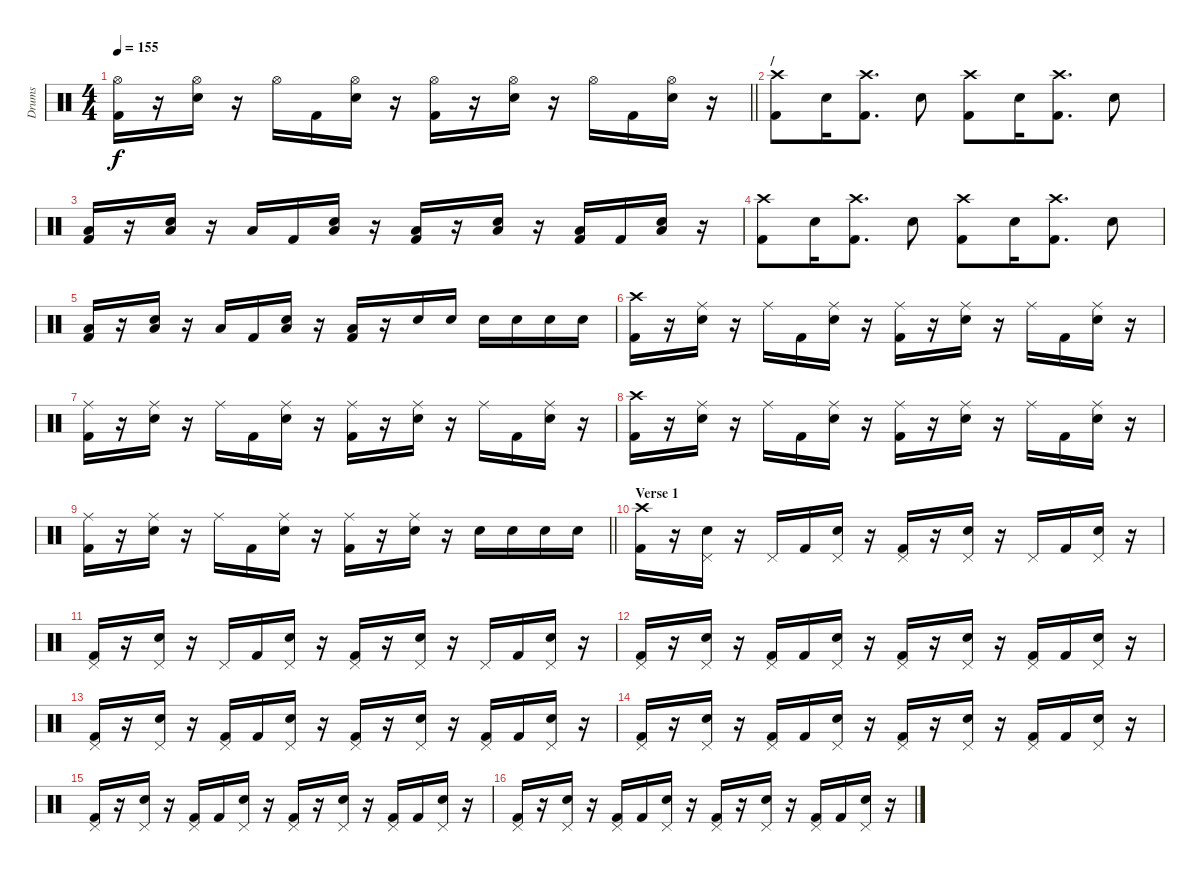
\track ("Drums" "Drums") {instrument percussion}
\staff {score}
\articulation defaults
\ts (4 4)
\tempo 155
\clef neutral
\barLineRight lightlight
\ks c
("Hi-Hat (open)" "Kick (hit) 2").16{dy f} r.16 ("Hi-Hat (open)" "Electric Snare (hit)").16 r.16 "Hi-Hat (open)".16 "Kick (hit) 2".16 ("Hi-Hat (open)" "Electric Snare (hit)").16 r.16 ("Hi-Hat (open)" "Kick (hit) 2").16 r.16 ("Hi-Hat (open)" "Electric Snare (hit)").16 r.16 "Hi-Hat (open)".16 "Kick (hit) 2".16 ("Hi-Hat (open)" "Electric Snare (hit)").16 r.16 |
\section ("" "/")
("Crash high (hit)" "Kick (hit) 2").8 "Electric Snare (hit)".16 ("Crash high (hit)" "Kick (hit) 2").8{d} "Electric Snare (hit)".8 ("Crash high (hit)" "Kick (hit) 2").8 "Electric Snare (hit)".16 ("Crash high (hit)" "Kick (hit) 2").8{d} "Electric Snare (hit)".8 |
("Low Tom (hit)" "Kick (hit) 2").16 r.16 ("Low Tom (hit)" "Electric Snare (hit)").16 r.16 "Low Tom (hit)".16 "Kick (hit) 2".16 ("Low Tom (hit)" "Electric Snare (hit)").16 r.16 ("Low Tom (hit)" "Kick (hit) 2").16 r.16 ("Low Tom (hit)" "Electric Snare (hit)").16 r.16 ("Low Tom (hit)" "Kick (hit) 2").16 "Kick (hit) 2".16 ("Low Tom (hit)" "Electric Snare (hit)").16 r.16 |
("Crash high (hit)" "Kick (hit) 2").8 "Electric Snare (hit)".16 ("Crash high (hit)" "Kick (hit) 2").8{d} "Electric Snare (hit)".8 ("Crash high (hit)" "Kick (hit) 2").8 "Electric Snare (hit)".16 ("Crash high (hit)" "Kick (hit) 2").8{d} "Electric Snare (hit)".8 |
("Low Tom (hit)" "Kick (hit) 2").16 r.16 ("Low Tom (hit)" "Electric Snare (hit)").16 r.16 "Low Tom (hit)".16 "Kick (hit) 2".16 ("Low Tom (hit)" "Electric Snare (hit)").16 r.16 ("Low Tom (hit)" "Kick (hit) 2").16 r.16 "Electric Snare (hit)".16 "Electric Snare (hit)".16 "Electric Snare (hit)".16 "Electric Snare (hit)".16 "Electric Snare (hit)".16 "Electric Snare (hit)".16 |
("Crash high (hit)" "Kick (hit) 2").16 r.16 ("Ride (middle)" "Electric Snare (hit)").16 r.16 "Ride (middle)".16 "Kick (hit) 2".16 ("Ride (middle)" "Electric Snare (hit)").16 r.16 ("Ride (middle)" "Kick (hit) 2").16 r.16 ("Ride (middle)" "Electric Snare (hit)").16 r.16 "Ride (middle)".16 "Kick (hit) 2".16 ("Ride (middle)" "Electric Snare (hit)").16 r.16 |
("Ride (middle)" "Kick (hit) 2").16 r.16 ("Ride (middle)" "Electric Snare (hit)").16 r.16 "Ride (middle)".16 "Kick (hit) 2".16 ("Ride (middle)" "Electric Snare (hit)").16 r.16 ("Ride (middle)" "Kick (hit) 2").16 r.16 ("Ride (middle)" "Electric Snare (hit)").16 r.16 "Ride (middle)".16 "Kick (hit) 2".16 ("Ride (middle)" "Electric Snare (hit)").16 r.16 |
("Crash high (hit)" "Kick (hit) 2").16 r.16 ("Ride (middle)" "Electric Snare (hit)").16 r.16 "Ride (middle)".16 "Kick (hit) 2".16 ("Ride (middle)" "Electric Snare (hit)").16 r.16 ("Ride (middle)" "Kick (hit) 2").16 r.16 ("Ride (middle)" "Electric Snare (hit)").16 r.16 "Ride (middle)".16 "Kick (hit) 2".16 ("Ride (middle)" "Electric Snare (hit)").16 r.16 |
\barLineRight lightlight
("Ride (middle)" "Kick (hit) 2").16 r.16 ("Ride (middle)" "Electric Snare (hit)").16 r.16 "Ride (middle)".16 "Kick (hit) 2".16 ("Ride (middle)" "Electric Snare (hit)").16 r.16 ("Ride (middle)" "Kick (hit) 2").16 r.16 ("Ride (middle)" "Electric Snare (hit)").16 r.16 "Electric Snare (hit)".16 "Electric Snare (hit)".16 "Electric Snare (hit)".16 "Electric Snare (hit)".16 |
\section ("" "Verse 1")
("Crash high (hit)" "Kick (hit) 2").16 r.16 ("Pedal Hi-Hat (hit)" "Electric Snare (hit)").16 r.16 "Pedal Hi-Hat (hit)".16 "Kick (hit) 2".16 ("Pedal Hi-Hat (hit)" "Electric Snare (hit)").16 r.16 ("Pedal Hi-Hat (hit)" "Kick (hit) 2").16 r.16 ("Pedal Hi-Hat (hit)" "Electric Snare (hit)").16 r.16 "Pedal Hi-Hat (hit)".16 "Kick (hit) 2".16 ("Pedal Hi-Hat (hit)" "Electric Snare (hit)").16 r.16 |
("Pedal Hi-Hat (hit)" "Kick (hit) 2").16 r.16 ("Pedal Hi-Hat (hit)" "Electric Snare (hit)").16 r.16 "Pedal Hi-Hat (hit)".16 "Kick (hit) 2".16 ("Pedal Hi-Hat (hit)" "Electric Snare (hit)").16 r.16 ("Pedal Hi-Hat (hit)" "Kick (hit) 2").16 r.16 ("Pedal Hi-Hat (hit)" "Electric Snare (hit)").16 r.16 "Pedal Hi-Hat (hit)".16 "Kick (hit) 2".16 ("Pedal Hi-Hat (hit)" "Electric Snare (hit)").16 r.16 |
("Pedal Hi-Hat (hit)" "Kick (hit) 2").16 r.16 ("Pedal Hi-Hat (hit)" "Electric Snare (hit)").16 r.16 ("Pedal Hi-Hat (hit)" "Kick (hit) 2").16 "Kick (hit) 2".16 ("Pedal Hi-Hat (hit)" "Electric Snare (hit)").16 r.16 ("Pedal Hi-Hat (hit)" "Kick (hit) 2").16 r.16 ("Pedal Hi-Hat (hit)" "Electric Snare (hit)").16 r.16 ("Pedal Hi-Hat (hit)" "Kick (hit) 2").16 "Kick (hit) 2".16 ("Pedal Hi-Hat (hit)" "Electric Snare (hit)").16 r.16 |
("Pedal Hi-Hat (hit)" "Kick (hit) 2").16 r.16 ("Pedal Hi-Hat (hit)" "Electric Snare (hit)").16 r.16 ("Pedal Hi-Hat (hit)" "Kick (hit) 2").16 "Kick (hit) 2".16 ("Pedal Hi-Hat (hit)" "Electric Snare (hit)").16 r.16 ("Pedal Hi-Hat (hit)" "Kick (hit) 2").16 r.16 ("Pedal Hi-Hat (hit)" "Electric Snare (hit)").16 r.16 ("Pedal Hi-Hat (hit)" "Kick (hit) 2").16 "Kick (hit) 2".16 ("Pedal Hi-Hat (hit)" "Electric Snare (hit)").16 r.16 |
("Pedal Hi-Hat (hit)" "Kick (hit) 2").16 r.16 ("Pedal Hi-Hat (hit)" "Electric Snare (hit)").16 r.16 ("Pedal Hi-Hat (hit)" "Kick (hit) 2").16 "Kick (hit) 2".16 ("Pedal Hi-Hat (hit)" "Electric Snare (hit)").16 r.16 ("Pedal Hi-Hat (hit)" "Kick (hit) 2").16 r.16 ("Pedal Hi-Hat (hit)" "Electric Snare (hit)").16 r.16 ("Pedal Hi-Hat (hit)" "Kick (hit) 2").16 "Kick (hit) 2".16 ("Pedal Hi-Hat (hit)" "Electric Snare (hit)").16 r.16 |
("Pedal Hi-Hat (hit)" "Kick (hit) 2").16 r.16 ("Pedal Hi-Hat (hit)" "Electric Snare (hit)").16 r.16 ("Pedal Hi-Hat (hit)" "Kick (hit) 2").16 "Kick (hit) 2".16 ("Pedal Hi-Hat (hit)" "Electric Snare (hit)").16 r.16 ("Pedal Hi-Hat (hit)" "Kick (hit) 2").16 r.16 ("Pedal Hi-Hat (hit)" "Electric Snare (hit)").16 r.16 ("Pedal Hi-Hat (hit)" "Kick (hit) 2").16 "Kick (hit) 2".16 ("Pedal Hi-Hat (hit)" "Electric Snare (hit)").16 r.16 |
("Pedal Hi-Hat (hit)" "Kick (hit) 2").16 r.16 ("Pedal Hi-Hat (hit)" "Electric Snare (hit)").16 r.16 ("Pedal Hi-Hat (hit)" "Kick (hit) 2").16 "Kick (hit) 2".16 ("Pedal Hi-Hat (hit)" "Electric Snare (hit)").16 r.16 ("Pedal Hi-Hat (hit)" "Kick (hit) 2").16 r.16 ("Pedal Hi-Hat (hit)" "Electric Snare (hit)").16 r.16 ("Pedal Hi-Hat (hit)" "Kick (hit) 2").16 "Kick (hit) 2".16 ("Pedal Hi-Hat (hit)" "Electric Snare (hit)").16 r.16
